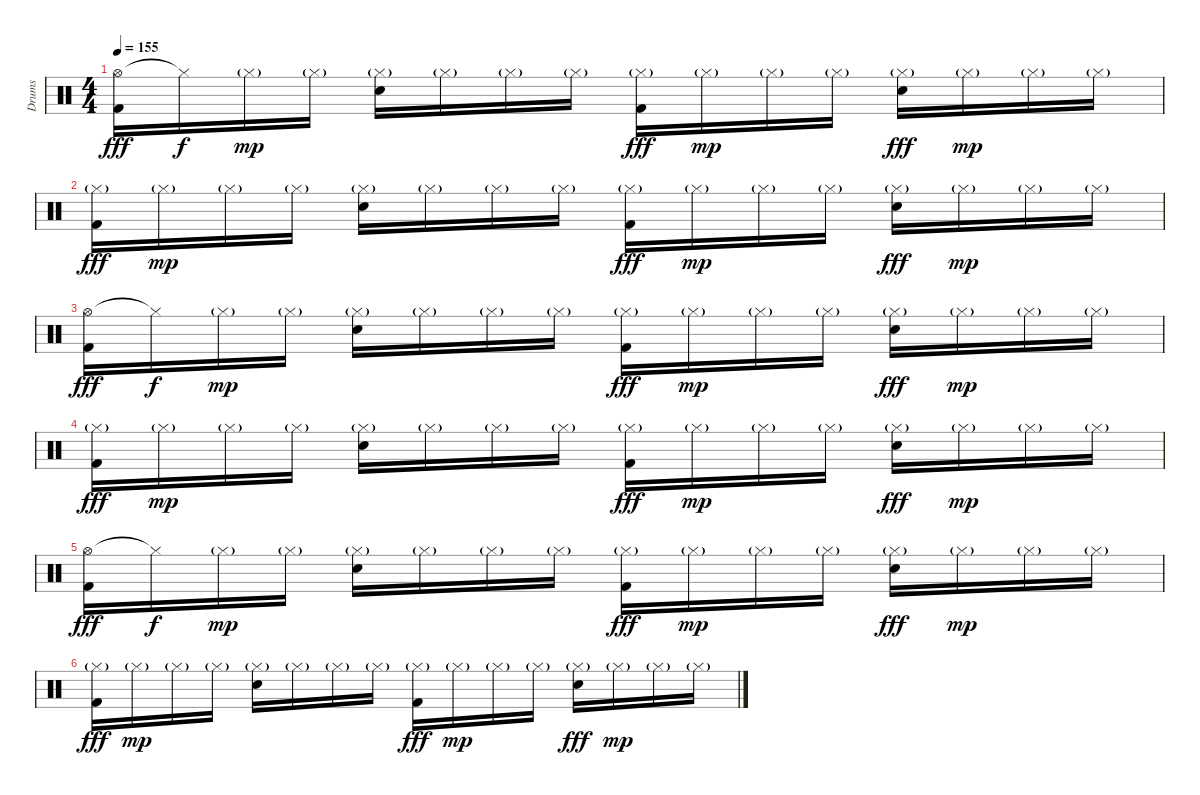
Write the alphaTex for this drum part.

\track ("Drums" "Drums") {instrument percussion}
\staff {score}
\articulation defaults
\ts (4 4)
\tempo 155
\clef neutral
\ks c
("Hi-Hat (open)" "Kick (hit) 2").16{dy fff} "Hi-Hat (closed)"{t}.16{dy f} "Hi-Hat (closed)"{g}.16{dy mp} "Hi-Hat (closed)"{g}.16 ("Hi-Hat (closed)"{g} "Electric Snare (hit)").16 "Hi-Hat (closed)"{g}.16 "Hi-Hat (closed)"{g}.16 "Hi-Hat (closed)"{g}.16 ("Hi-Hat (closed)"{g} "Kick (hit) 2").16{dy fff} "Hi-Hat (closed)"{g}.16{dy mp} "Hi-Hat (closed)"{g}.16 "Hi-Hat (closed)"{g}.16 ("Hi-Hat (closed)"{g} "Electric Snare (hit)").16{dy fff} "Hi-Hat (closed)"{g}.16{dy mp} "Hi-Hat (closed)"{g}.16 "Hi-Hat (closed)"{g}.16 |
("Hi-Hat (closed)"{g} "Kick (hit) 2").16{dy fff} "Hi-Hat (closed)"{g}.16{dy mp} "Hi-Hat (closed)"{g}.16 "Hi-Hat (closed)"{g}.16 ("Hi-Hat (closed)"{g} "Electric Snare (hit)").16 "Hi-Hat (closed)"{g}.16 "Hi-Hat (closed)"{g}.16 "Hi-Hat (closed)"{g}.16 ("Hi-Hat (closed)"{g} "Kick (hit) 2").16{dy fff} "Hi-Hat (closed)"{g}.16{dy mp} "Hi-Hat (closed)"{g}.16 "Hi-Hat (closed)"{g}.16 ("Hi-Hat (closed)"{g} "Electric Snare (hit)").16{dy fff} "Hi-Hat (closed)"{g}.16{dy mp} "Hi-Hat (closed)"{g}.16 "Hi-Hat (closed)"{g}.16 |
("Hi-Hat (open)" "Kick (hit) 2").16{dy fff} "Hi-Hat (closed)"{t}.16{dy f} "Hi-Hat (closed)"{g}.16{dy mp} "Hi-Hat (closed)"{g}.16 ("Hi-Hat (closed)"{g} "Electric Snare (hit)").16 "Hi-Hat (closed)"{g}.16 "Hi-Hat (closed)"{g}.16 "Hi-Hat (closed)"{g}.16 ("Hi-Hat (closed)"{g} "Kick (hit) 2").16{dy fff} "Hi-Hat (closed)"{g}.16{dy mp} "Hi-Hat (closed)"{g}.16 "Hi-Hat (closed)"{g}.16 ("Hi-Hat (closed)"{g} "Electric Snare (hit)").16{dy fff} "Hi-Hat (closed)"{g}.16{dy mp} "Hi-Hat (closed)"{g}.16 "Hi-Hat (closed)"{g}.16 |
("Hi-Hat (closed)"{g} "Kick (hit) 2").16{dy fff} "Hi-Hat (closed)"{g}.16{dy mp} "Hi-Hat (closed)"{g}.16 "Hi-Hat (closed)"{g}.16 ("Hi-Hat (closed)"{g} "Electric Snare (hit)").16 "Hi-Hat (closed)"{g}.16 "Hi-Hat (closed)"{g}.16 "Hi-Hat (closed)"{g}.16 ("Hi-Hat (closed)"{g} "Kick (hit) 2").16{dy fff} "Hi-Hat (closed)"{g}.16{dy mp} "Hi-Hat (closed)"{g}.16 "Hi-Hat (closed)"{g}.16 ("Hi-Hat (closed)"{g} "Electric Snare (hit)").16{dy fff} "Hi-Hat (closed)"{g}.16{dy mp} "Hi-Hat (closed)"{g}.16 "Hi-Hat (closed)"{g}.16 |
("Hi-Hat (open)" "Kick (hit) 2").16{dy fff} "Hi-Hat (closed)"{t}.16{dy f} "Hi-Hat (closed)"{g}.16{dy mp} "Hi-Hat (closed)"{g}.16 ("Hi-Hat (closed)"{g} "Electric Snare (hit)").16 "Hi-Hat (closed)"{g}.16 "Hi-Hat (closed)"{g}.16 "Hi-Hat (closed)"{g}.16 ("Hi-Hat (closed)"{g} "Kick (hit) 2").16{dy fff} "Hi-Hat (closed)"{g}.16{dy mp} "Hi-Hat (closed)"{g}.16 "Hi-Hat (closed)"{g}.16 ("Hi-Hat (closed)"{g} "Electric Snare (hit)").16{dy fff} "Hi-Hat (closed)"{g}.16{dy mp} "Hi-Hat (closed)"{g}.16 "Hi-Hat (closed)"{g}.16 |
("Hi-Hat (closed)"{g} "Kick (hit) 2").16{dy fff} "Hi-Hat (closed)"{g}.16{dy mp} "Hi-Hat (closed)"{g}.16 "Hi-Hat (closed)"{g}.16 ("Hi-Hat (closed)"{g} "Electric Snare (hit)").16 "Hi-Hat (closed)"{g}.16 "Hi-Hat (closed)"{g}.16 "Hi-Hat (closed)"{g}.16 ("Hi-Hat (closed)"{g} "Kick (hit) 2").16{dy fff} "Hi-Hat (closed)"{g}.16{dy mp} "Hi-Hat (closed)"{g}.16 "Hi-Hat (closed)"{g}.16 ("Hi-Hat (closed)"{g} "Electric Snare (hit)").16{dy fff} "Hi-Hat (closed)"{g}.16{dy mp} "Hi-Hat (closed)"{g}.16 "Hi-Hat (closed)"{g}.16
